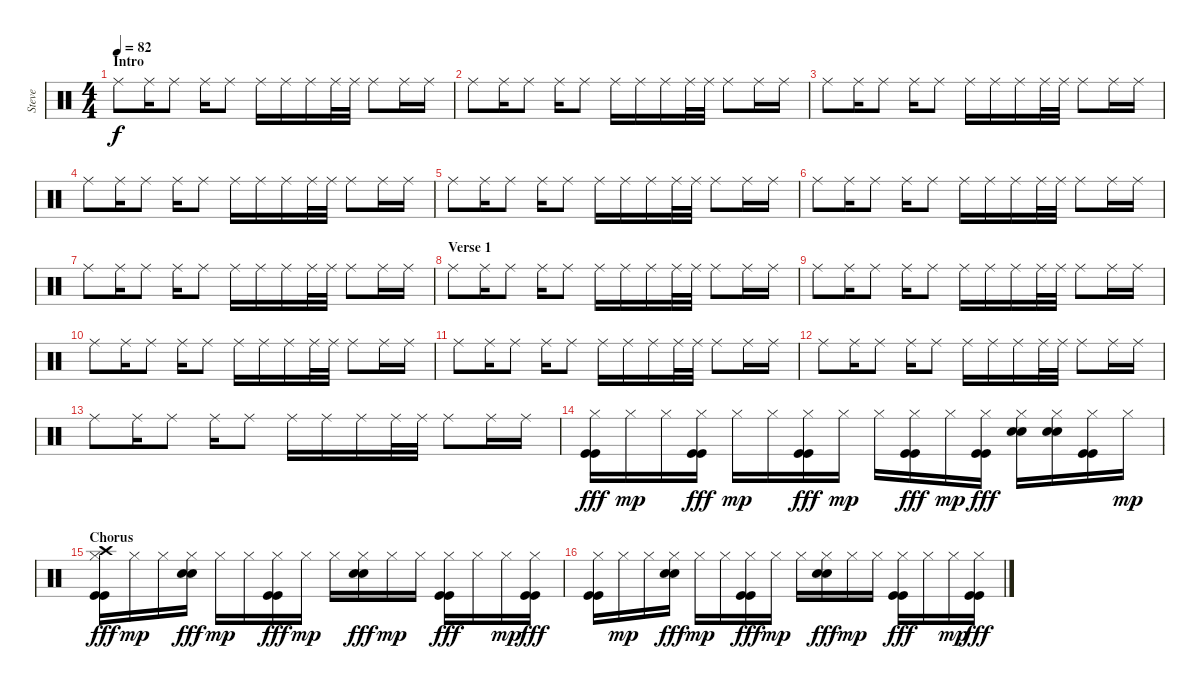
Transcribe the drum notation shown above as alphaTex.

\track ("Steve" "Steve") {instrument percussion}
\staff {score}
\articulation defaults
\ts (4 4)
\section ("" "Intro")
\tempo 82
\clef neutral
\ks c "Ride (middle)".8{dy f} "Ride (middle)".16 "Ride (middle)".8 "Ride (middle)".16 "Ride (middle)".8 "Ride (middle)".16 "Ride (middle)".16 "Ride (middle)".16 "Ride (middle)".32 "Ride (middle)".32 "Ride (middle)".8 "Ride (middle)".16 "Ride (middle)".16
|
"Ride (middle)".8 "Ride (middle)".16 "Ride (middle)".8 "Ride (middle)".16 "Ride (middle)".8 "Ride (middle)".16 "Ride (middle)".16 "Ride (middle)".16 "Ride (middle)".32 "Ride (middle)".32 "Ride (middle)".8 "Ride (middle)".16 "Ride (middle)".16 |
"Ride (middle)".8 "Ride (middle)".16 "Ride (middle)".8 "Ride (middle)".16 "Ride (middle)".8 "Ride (middle)".16 "Ride (middle)".16 "Ride (middle)".16 "Ride (middle)".32 "Ride (middle)".32 "Ride (middle)".8 "Ride (middle)".16 "Ride (middle)".16 |
"Ride (middle)".8 "Ride (middle)".16 "Ride (middle)".8 "Ride (middle)".16 "Ride (middle)".8 "Ride (middle)".16 "Ride (middle)".16 "Ride (middle)".16 "Ride (middle)".32 "Ride (middle)".32 "Ride (middle)".8 "Ride (middle)".16 "Ride (middle)".16 |
"Ride (middle)".8 "Ride (middle)".16 "Ride (middle)".8 "Ride (middle)".16 "Ride (middle)".8 "Ride (middle)".16 "Ride (middle)".16 "Ride (middle)".16 "Ride (middle)".32 "Ride (middle)".32 "Ride (middle)".8 "Ride (middle)".16 "Ride (middle)".16 |
"Ride (middle)".8 "Ride (middle)".16 "Ride (middle)".8 "Ride (middle)".16 "Ride (middle)".8 "Ride (middle)".16 "Ride (middle)".16 "Ride (middle)".16 "Ride (middle)".32 "Ride (middle)".32 "Ride (middle)".8 "Ride (middle)".16 "Ride (middle)".16 |
"Ride (middle)".8 "Ride (middle)".16 "Ride (middle)".8 "Ride (middle)".16 "Ride (middle)".8 "Ride (middle)".16 "Ride (middle)".16 "Ride (middle)".16 "Ride (middle)".32 "Ride (middle)".32 "Ride (middle)".8 "Ride (middle)".16 "Ride (middle)".16 |
\section ("" "Verse 1")
"Ride (middle)".8 "Ride (middle)".16 "Ride (middle)".8 "Ride (middle)".16 "Ride (middle)".8 "Ride (middle)".16 "Ride (middle)".16 "Ride (middle)".16 "Ride (middle)".32 "Ride (middle)".32 "Ride (middle)".8 "Ride (middle)".16 "Ride (middle)".16 |
"Ride (middle)".8 "Ride (middle)".16 "Ride (middle)".8 "Ride (middle)".16 "Ride (middle)".8 "Ride (middle)".16 "Ride (middle)".16 "Ride (middle)".16 "Ride (middle)".32 "Ride (middle)".32 "Ride (middle)".8 "Ride (middle)".16 "Ride (middle)".16 |
"Ride (middle)".8 "Ride (middle)".16 "Ride (middle)".8 "Ride (middle)".16 "Ride (middle)".8 "Ride (middle)".16 "Ride (middle)".16 "Ride (middle)".16 "Ride (middle)".32 "Ride (middle)".32 "Ride (middle)".8 "Ride (middle)".16 "Ride (middle)".16 |
"Ride (middle)".8 "Ride (middle)".16 "Ride (middle)".8 "Ride (middle)".16 "Ride (middle)".8 "Ride (middle)".16 "Ride (middle)".16 "Ride (middle)".16 "Ride (middle)".32 "Ride (middle)".32 "Ride (middle)".8 "Ride (middle)".16 "Ride (middle)".16 |
"Ride (middle)".8 "Ride (middle)".16 "Ride (middle)".8 "Ride (middle)".16 "Ride (middle)".8 "Ride (middle)".16 "Ride (middle)".16 "Ride (middle)".16 "Ride (middle)".32 "Ride (middle)".32 "Ride (middle)".8 "Ride (middle)".16 "Ride (middle)".16 |
"Ride (middle)".8 "Ride (middle)".16 "Ride (middle)".8 "Ride (middle)".16 "Ride (middle)".8 "Ride (middle)".16 "Ride (middle)".16 "Ride (middle)".16 "Ride (middle)".32 "Ride (middle)".32 "Ride (middle)".8 "Ride (middle)".16 "Ride (middle)".16 |
("Hi-Hat (closed)" "Kick (hit)" "Kick (hit)").16{dy fff} "Hi-Hat (closed)".16{dy mp} "Hi-Hat (closed)".16 ("Hi-Hat (closed)" "Kick (hit)" "Kick (hit)").16{dy fff} "Hi-Hat (closed)".16{dy mp} "Hi-Hat (closed)".16 ("Hi-Hat (closed)" "Kick (hit)" "Kick (hit)").16{dy fff} "Hi-Hat (closed)".16{dy mp} "Hi-Hat (closed)".16 ("Hi-Hat (closed)" "Kick (hit)" "Kick (hit)").16{dy fff} "Hi-Hat (closed)".16{dy mp} ("Hi-Hat (closed)" "Kick (hit)" "Kick (hit)").16{dy fff} ("Hi-Hat (closed)" "Snare (hit) 2" "Snare (hit) 2").16 ("Hi-Hat (closed)" "Snare (hit) 2" "Snare (hit) 2").16 ("Hi-Hat (closed)" "Kick (hit)" "Kick (hit)").16 "Hi-Hat (closed)".16{dy mp} |
\section ("" "Chorus")
("Crash high (hit)" "Hi-Hat (closed)" "Kick (hit)" "Kick (hit)").16{dy fff} "Hi-Hat (closed)".16{dy mp} "Hi-Hat (closed)".16 ("Hi-Hat (closed)" "Snare (hit) 2" "Snare (hit) 2").16{dy fff} "Hi-Hat (closed)".16{dy mp} "Hi-Hat (closed)".16 ("Hi-Hat (closed)" "Kick (hit)" "Kick (hit)").16{dy fff} "Hi-Hat (closed)".16{dy mp} "Hi-Hat (closed)".16 ("Hi-Hat (closed)" "Snare (hit) 2" "Snare (hit) 2").16{dy fff} "Hi-Hat (closed)".16{dy mp} "Hi-Hat (closed)".16 ("Hi-Hat (closed)" "Kick (hit)" "Kick (hit)").16{dy fff} "Hi-Hat (closed)".16 "Hi-Hat (closed)".16{dy mp} ("Hi-Hat (closed)" "Kick (hit)" "Kick (hit)").16{dy fff} |
("Hi-Hat (closed)" "Kick (hit)" "Kick (hit)").16 "Hi-Hat (closed)".16{dy mp} "Hi-Hat (closed)".16 ("Hi-Hat (closed)" "Snare (hit) 2" "Snare (hit) 2").16{dy fff} "Hi-Hat (closed)".16{dy mp} "Hi-Hat (closed)".16 ("Hi-Hat (closed)" "Kick (hit)" "Kick (hit)").16{dy fff} "Hi-Hat (closed)".16{dy mp} "Hi-Hat (closed)".16 ("Hi-Hat (closed)" "Snare (hit) 2" "Snare (hit) 2").16{dy fff} "Hi-Hat (closed)".16{dy mp} "Hi-Hat (closed)".16 ("Hi-Hat (closed)" "Kick (hit)" "Kick (hit)").16{dy fff} "Hi-Hat (closed)".16 "Hi-Hat (closed)".16{dy mp} ("Hi-Hat (closed)" "Kick (hit)" "Kick (hit)").16{dy fff}
